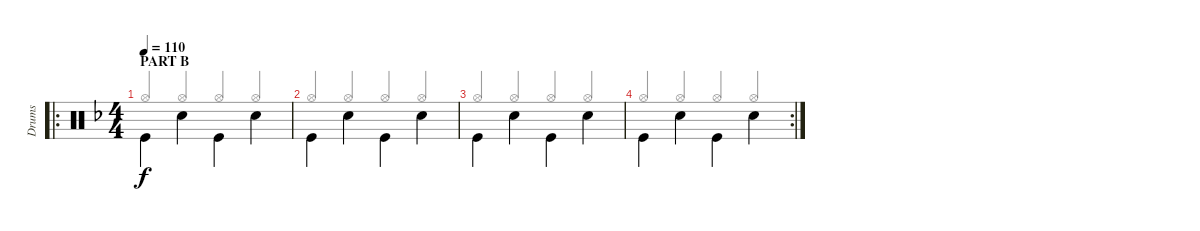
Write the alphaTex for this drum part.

\track ("Drums" "Drums") {instrument percussion}
\staff {score}
\articulation defaults
\voice
\ro
\ts (4 4)
\section ("" "PART B")
\tempo 110
\clef neutral
\ks f "Kick (hit)".4{dy f beam Down} "Snare (hit) 2".4{beam Down} "Kick (hit)".4{beam Down} "Snare (hit) 2".4{beam Down}
|
"Kick (hit)".4{beam Down} "Snare (hit) 2".4{beam Down} "Kick (hit)".4{beam Down} "Snare (hit) 2".4{beam Down} |
"Kick (hit)".4{beam Down} "Snare (hit) 2".4{beam Down} "Kick (hit)".4{beam Down} "Snare (hit) 2".4{beam Down} |
\rc 2 "Kick (hit)".4{beam Down} "Snare (hit) 2".4{beam Down} "Kick (hit)".4{beam Down} "Snare (hit) 2".4{beam Down}
\voice
\clef neutral
\ottava regular
\simile none
\ks f "Hi-Hat (open)".4{dy f beam Up} "Hi-Hat (open)".4{beam Up} "Hi-Hat (open)".4{beam Up} "Hi-Hat (open)".4{beam Up}
|
"Hi-Hat (open)".4{beam Up} "Hi-Hat (open)".4{beam Up} "Hi-Hat (open)".4{beam Up} "Hi-Hat (open)".4{beam Up} |
"Hi-Hat (open)".4{beam Up} "Hi-Hat (open)".4{beam Up} "Hi-Hat (open)".4{beam Up} "Hi-Hat (open)".4{beam Up} |
"Hi-Hat (open)".4{beam Up} "Hi-Hat (open)".4{beam Up} "Hi-Hat (open)".4{beam Up} "Hi-Hat (open)".4{beam Up}
